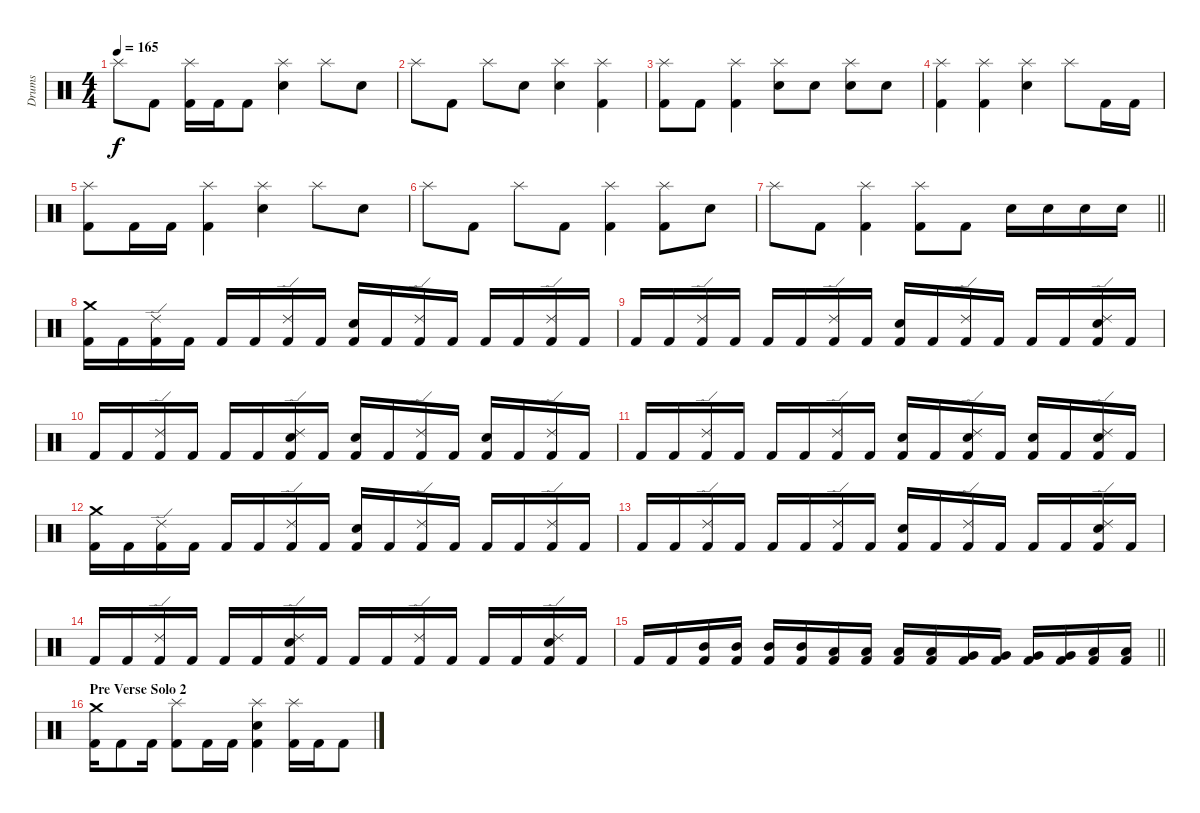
\track ("Drums" "Drums") {instrument percussion}
\staff {score}
\articulation defaults
\ts (4 4)
\tempo 165
\clef neutral
\ks c "Splash (hit)".8{dy f} "Kick (hit) 2".8
("Splash (hit)" "Kick (hit) 2").16 "Kick (hit) 2".16 "Kick (hit) 2".8 ("Splash (hit)" "Snare (hit) 2").4 "Splash (hit)".8 "Snare (hit) 2".8 |
"Splash (hit)".8 "Kick (hit) 2".8 "Splash (hit)".8 "Snare (hit) 2".8 ("Splash (hit)" "Snare (hit) 2").4 ("Splash (hit)" "Kick (hit) 2").4 |
("Splash (hit)" "Kick (hit) 2").8 "Kick (hit) 2".8 ("Splash (hit)" "Kick (hit) 2").4 ("Splash (hit)" "Snare (hit) 2").8 "Snare (hit) 2".8 ("Splash (hit)" "Snare (hit) 2").8 "Snare (hit) 2".8 |
("Splash (hit)" "Kick (hit) 2").4 ("Splash (hit)" "Kick (hit) 2").4 ("Splash (hit)" "Snare (hit) 2").4 "Splash (hit)".8 "Kick (hit) 2".16 "Kick (hit) 2".16 |
("Splash (hit)" "Kick (hit) 2").8 "Kick (hit) 2".16 "Kick (hit) 2".16 ("Splash (hit)" "Kick (hit) 2").4 ("Splash (hit)" "Snare (hit) 2").4 "Splash (hit)".8 "Snare (hit) 2".8 |
"Splash (hit)".8 "Kick (hit) 2".8 "Splash (hit)".8 "Kick (hit) 2".8 ("Splash (hit)" "Kick (hit) 2").4 ("Splash (hit)" "Kick (hit) 2").8 "Snare (hit) 2".8 |
\barLineRight lightlight "Splash (hit)".8 "Kick (hit) 2".8
("Splash (hit)" "Kick (hit) 2").4 ("Splash (hit)" "Kick (hit) 2").8 "Kick (hit) 2".8 "Snare (hit) 2".16 "Snare (hit) 2".16 "Snare (hit) 2".16 "Snare (hit) 2".16 |
("Crash medium (hit)" "Kick (hit) 2").16 "Kick (hit) 2".16 ("Ride (edge) 2" "Kick (hit) 2").16 "Kick (hit) 2".16 "Kick (hit) 2".16 "Kick (hit) 2".16 ("Ride (edge) 2" "Kick (hit) 2").16 "Kick (hit) 2".16 ("Snare (hit) 2" "Kick (hit) 2").16 "Kick (hit) 2".16 ("Ride (edge) 2" "Kick (hit) 2").16 "Kick (hit) 2".16 "Kick (hit) 2".16 "Kick (hit) 2".16 ("Ride (edge) 2" "Kick (hit) 2").16 "Kick (hit) 2".16 |
"Kick (hit) 2".16 "Kick (hit) 2".16 ("Ride (edge) 2" "Kick (hit) 2").16 "Kick (hit) 2".16 "Kick (hit) 2".16 "Kick (hit) 2".16 ("Ride (edge) 2" "Kick (hit) 2").16 "Kick (hit) 2".16 ("Snare (hit) 2" "Kick (hit) 2").16 "Kick (hit) 2".16 ("Ride (edge) 2" "Kick (hit) 2").16 "Kick (hit) 2".16 "Kick (hit) 2".16 "Kick (hit) 2".16 ("Ride (edge) 2" "Snare (hit) 2" "Kick (hit) 2").16 "Kick (hit) 2".16 |
"Kick (hit) 2".16 "Kick (hit) 2".16 ("Ride (edge) 2" "Kick (hit) 2").16 "Kick (hit) 2".16 "Kick (hit) 2".16 "Kick (hit) 2".16 ("Ride (edge) 2" "Snare (hit) 2" "Kick (hit) 2").16 "Kick (hit) 2".16 ("Snare (hit) 2" "Kick (hit) 2").16 "Kick (hit) 2".16 ("Ride (edge) 2" "Kick (hit) 2").16 "Kick (hit) 2".16 ("Snare (hit) 2" "Kick (hit) 2").16 "Kick (hit) 2".16 ("Ride (edge) 2" "Kick (hit) 2").16 "Kick (hit) 2".16 |
"Kick (hit) 2".16 "Kick (hit) 2".16 ("Ride (edge) 2" "Kick (hit) 2").16 "Kick (hit) 2".16 "Kick (hit) 2".16 "Kick (hit) 2".16 ("Ride (edge) 2" "Kick (hit) 2").16 "Kick (hit) 2".16 ("Snare (hit) 2" "Kick (hit) 2").16 "Kick (hit) 2".16 ("Ride (edge) 2" "Snare (hit) 2" "Kick (hit) 2").16 "Kick (hit) 2".16 ("Snare (hit) 2" "Kick (hit) 2").16 "Kick (hit) 2".16 ("Ride (edge) 2" "Snare (hit) 2" "Kick (hit) 2").16 "Kick (hit) 2".16 |
("Crash medium (hit)" "Kick (hit) 2").16 "Kick (hit) 2".16 ("Ride (edge) 2" "Kick (hit) 2").16 "Kick (hit) 2".16 "Kick (hit) 2".16 "Kick (hit) 2".16 ("Ride (edge) 2" "Kick (hit) 2").16 "Kick (hit) 2".16 ("Snare (hit) 2" "Kick (hit) 2").16 "Kick (hit) 2".16 ("Ride (edge) 2" "Kick (hit) 2").16 "Kick (hit) 2".16 "Kick (hit) 2".16 "Kick (hit) 2".16 ("Ride (edge) 2" "Kick (hit) 2").16 "Kick (hit) 2".16 |
"Kick (hit) 2".16 "Kick (hit) 2".16 ("Ride (edge) 2" "Kick (hit) 2").16 "Kick (hit) 2".16 "Kick (hit) 2".16 "Kick (hit) 2".16 ("Ride (edge) 2" "Kick (hit) 2").16 "Kick (hit) 2".16 ("Snare (hit) 2" "Kick (hit) 2").16 "Kick (hit) 2".16 ("Ride (edge) 2" "Kick (hit) 2").16 "Kick (hit) 2".16 "Kick (hit) 2".16 "Kick (hit) 2".16 ("Ride (edge) 2" "Snare (hit) 2" "Kick (hit) 2").16 "Kick (hit) 2".16 |
"Kick (hit) 2".16 "Kick (hit) 2".16 ("Ride (edge) 2" "Kick (hit) 2").16 "Kick (hit) 2".16 "Kick (hit) 2".16 "Kick (hit) 2".16 ("Ride (edge) 2" "Snare (hit) 2" "Kick (hit) 2").16 "Kick (hit) 2".16 "Kick (hit) 2".16 "Kick (hit) 2".16 ("Ride (edge) 2" "Kick (hit) 2").16 "Kick (hit) 2".16 "Kick (hit) 2".16 "Kick (hit) 2".16 ("Ride (edge) 2" "Snare (hit) 2" "Kick (hit) 2").16 "Kick (hit) 2".16 |
\barLineRight lightlight "Kick (hit) 2".16 "Kick (hit) 2".16
("Mid Tom (hit)" "Kick (hit) 2").16 ("Mid Tom (hit)" "Kick (hit) 2").16 ("Mid Tom (hit)" "Kick (hit) 2").16 ("Mid Tom (hit)" "Kick (hit) 2").16 ("Low Tom (hit)" "Kick (hit) 2").16 ("Low Tom (hit)" "Kick (hit) 2").16 ("Low Tom (hit)" "Kick (hit) 2").16 ("Low Tom (hit)" "Kick (hit) 2").16 ("Very Low Tom (hit)" "Kick (hit) 2").16 ("Very Low Tom (hit)" "Kick (hit) 2").16 ("Very Low Tom (hit)" "Kick (hit) 2").16 ("Very Low Tom (hit)" "Kick (hit) 2").16 ("Low Floor Tom (hit)" "Kick (hit) 2").16 ("Low Floor Tom (hit)" "Kick (hit) 2").16 |
\section ("" "Pre Verse Solo 2")
("Crash medium (hit)" "Kick (hit) 2").16 "Kick (hit) 2".8 "Kick (hit) 2".16 ("Splash (hit)" "Kick (hit) 2").8 "Kick (hit) 2".16 "Kick (hit) 2".16 ("Splash (hit)" "Snare (hit) 2" "Kick (hit) 2").4 ("Splash (hit)" "Kick (hit) 2").16 "Kick (hit) 2".16 "Kick (hit) 2".8
